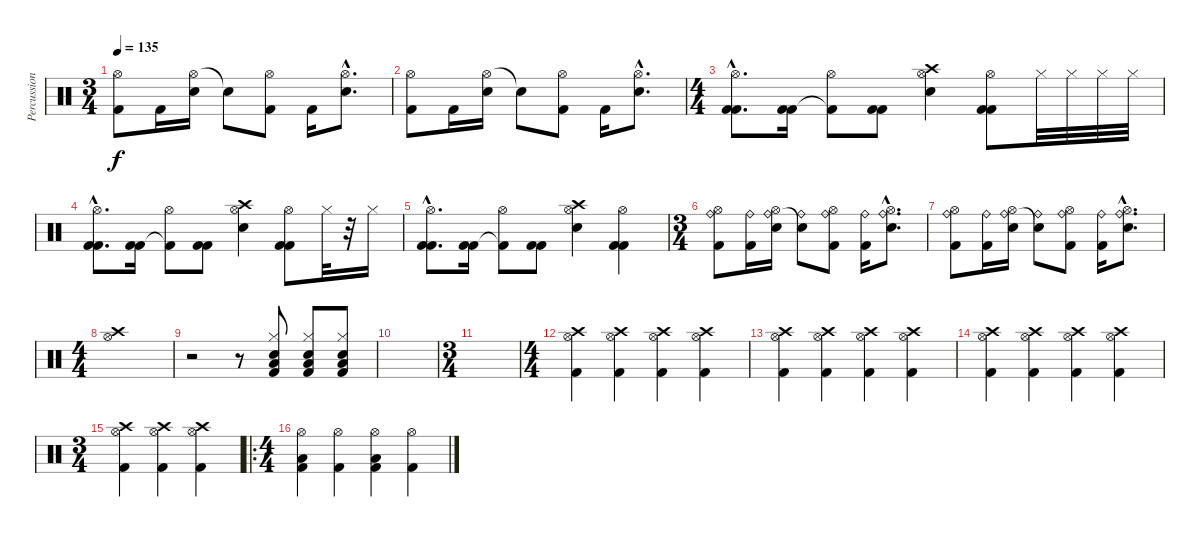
\track ("Percussions" "Percussion") {instrument percussion}
\staff {score}
\articulation defaults
\ts (3 4)
\tempo 135
\clef neutral
\ks c
("Hi-Hat (open)" "Kick (hit) 2").8{dy f} "Kick (hit) 2".16 ("Hi-Hat (open)" "Electric Snare (hit)").16 "Electric Snare (hit)"{t}.8 ("Hi-Hat (open)" "Kick (hit) 2").8 "Kick (hit) 2".16 ("Hi-Hat (open)"{hac} "Electric Snare (hit)"{hac}).8{d} |
("Hi-Hat (open)" "Kick (hit) 2").8 "Kick (hit) 2".16 ("Hi-Hat (open)" "Electric Snare (hit)").16 "Electric Snare (hit)"{t}.8 ("Hi-Hat (open)" "Kick (hit) 2").8 "Kick (hit) 2".16 ("Hi-Hat (open)"{hac} "Electric Snare (hit)"{hac}).8{d} |
\ts (4 4)
("Hi-Hat (open)"{hac} "Kick (hit) 2"{hac} "Kick (hit) 2"{hac}).8{d} ("Kick (hit) 2" "Kick (hit) 2").16 ("Hi-Hat (open)" "Kick (hit) 2"{t}).8 ("Kick (hit) 2" "Kick (hit) 2").8 ("Crash high (hit)" "Hi-Hat (open)" "Electric Snare (hit)").4 ("Hi-Hat (open)" "Kick (hit) 2" "Kick (hit) 2").8 "Hi-Hat (closed)".32 "Hi-Hat (closed)".32 "Hi-Hat (closed)".32 "Hi-Hat (closed)".32 |
("Hi-Hat (open)"{hac} "Kick (hit) 2"{hac} "Kick (hit) 2"{hac}).8{d} ("Kick (hit) 2" "Kick (hit) 2").16 ("Hi-Hat (open)" "Kick (hit) 2"{t}).8 ("Kick (hit) 2" "Kick (hit) 2").8 ("Crash high (hit)" "Hi-Hat (open)" "Electric Snare (hit)").4 ("Hi-Hat (open)" "Kick (hit) 2" "Kick (hit) 2").8 "Hi-Hat (closed)".32 r.32 "Hi-Hat (closed)".16 |
("Hi-Hat (open)"{hac} "Kick (hit) 2"{hac} "Kick (hit) 2"{hac}).8{d} ("Kick (hit) 2" "Kick (hit) 2").16 ("Hi-Hat (open)" "Kick (hit) 2"{t}).8 ("Kick (hit) 2" "Kick (hit) 2").8 ("Crash high (hit)" "Hi-Hat (open)" "Electric Snare (hit)").4 ("Hi-Hat (open)" "Kick (hit) 2" "Kick (hit) 2").4 |
\ts (3 4)
("Hi-Hat (open)" "Ride (bell)" "Kick (hit) 2").8 ("Ride (bell)" "Kick (hit) 2").16 ("Hi-Hat (open)" "Ride (bell)" "Electric Snare (hit)").16 ("Ride (bell)" "Electric Snare (hit)"{t}).8 ("Hi-Hat (open)" "Ride (bell)" "Kick (hit) 2").8 ("Ride (bell)" "Kick (hit) 2").16 ("Hi-Hat (open)"{hac} "Ride (bell)"{hac} "Electric Snare (hit)"{hac}).8{d} |
("Hi-Hat (open)" "Ride (bell)" "Kick (hit) 2").8 ("Ride (bell)" "Kick (hit) 2").16 ("Hi-Hat (open)" "Ride (bell)" "Electric Snare (hit)").16 ("Ride (bell)" "Electric Snare (hit)"{t}).8 ("Hi-Hat (open)" "Ride (bell)" "Kick (hit) 2").8 ("Ride (bell)" "Kick (hit) 2").16 ("Hi-Hat (open)"{hac} "Ride (bell)"{hac} "Electric Snare (hit)"{hac}).8{d} |
\ts (4 4)
("Crash high (hit)" "Hi-Hat (open)").1 |
r.2 r.8 ("Hi-Hat (closed)" "Low Tom (hit)" "Kick (hit) 2" "Electric Snare (hit)").8 ("Hi-Hat (closed)" "Low Tom (hit)" "Kick (hit) 2" "Electric Snare (hit)").8 ("Hi-Hat (closed)" "Low Tom (hit)" "Kick (hit) 2" "Electric Snare (hit)").8 |
|
\ts (3 4)
|
\ts (4 4)
("Crash high (hit)" "Hi-Hat (open)" "Kick (hit) 2").4 ("Crash high (hit)" "Hi-Hat (open)" "Kick (hit) 2").4 ("Crash high (hit)" "Hi-Hat (open)" "Kick (hit) 2").4 ("Crash high (hit)" "Hi-Hat (open)" "Kick (hit) 2").4 |
("Crash high (hit)" "Hi-Hat (open)" "Kick (hit) 2").4 ("Crash high (hit)" "Hi-Hat (open)" "Kick (hit) 2").4 ("Crash high (hit)" "Hi-Hat (open)" "Kick (hit) 2").4 ("Crash high (hit)" "Hi-Hat (open)" "Kick (hit) 2").4 |
("Crash high (hit)" "Hi-Hat (open)" "Kick (hit) 2").4 ("Crash high (hit)" "Hi-Hat (open)" "Kick (hit) 2").4 ("Crash high (hit)" "Hi-Hat (open)" "Kick (hit) 2").4 ("Crash high (hit)" "Hi-Hat (open)" "Kick (hit) 2").4 |
\ts (3 4)
("Hi-Hat (open)" "Crash high (hit)" "Kick (hit) 2").4 ("Hi-Hat (open)" "Crash high (hit)" "Kick (hit) 2").4 ("Hi-Hat (open)" "Crash high (hit)" "Kick (hit) 2").4 |
\ro
\ts (4 4)
("Hi-Hat (open)" "Low Tom (hit)" "Kick (hit) 2").4 ("Hi-Hat (open)" "Kick (hit) 2").4 ("Hi-Hat (open)" "Low Tom (hit)" "Kick (hit) 2").4 ("Hi-Hat (open)" "Kick (hit) 2").4
